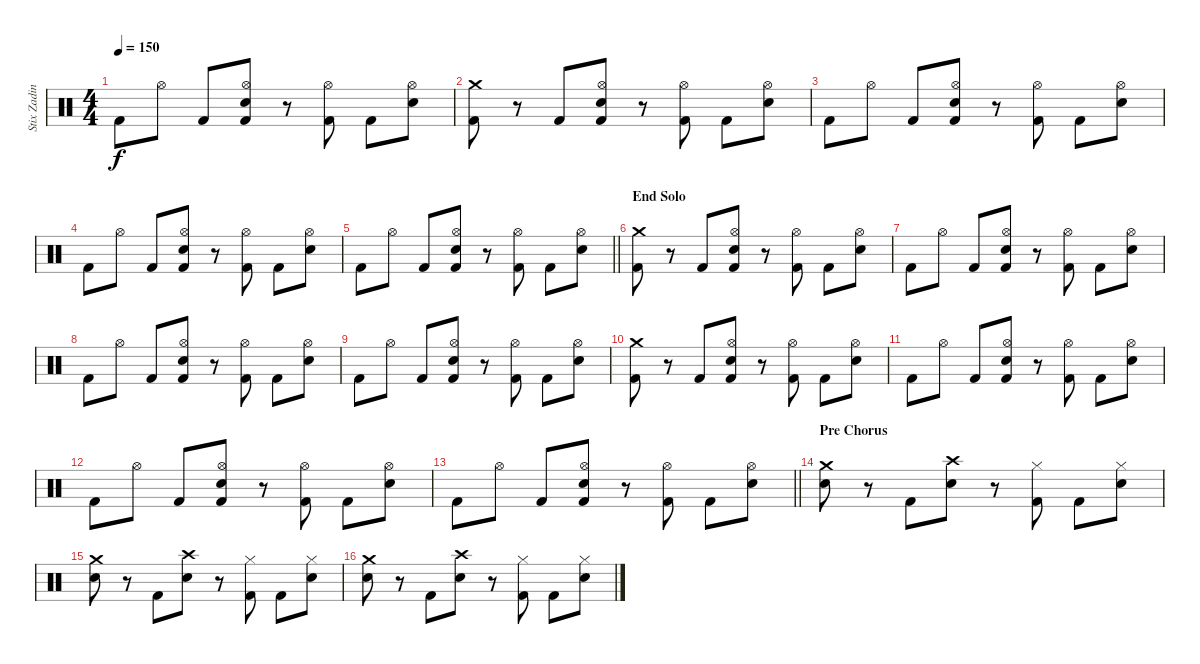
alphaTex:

\track ("Stix Zadina" "Stix Zadin") {instrument percussion}
\staff {score}
\articulation defaults
\ts (4 4)
\tempo 150
\clef neutral
\ks c "Kick (hit) 2".8{dy f} "Hi-Hat (open)".8 "Kick (hit) 2".8
("Hi-Hat (open)" "Snare (hit) 2" "Kick (hit) 2").8 r.8 ("Hi-Hat (open)" "Kick (hit) 2").8 "Kick (hit) 2".8 ("Hi-Hat (open)" "Snare (hit) 2").8 |
("Crash medium (hit)" "Kick (hit) 2").8 r.8 "Kick (hit) 2".8 ("Hi-Hat (open)" "Snare (hit) 2" "Kick (hit) 2").8 r.8 ("Hi-Hat (open)" "Kick (hit) 2").8 "Kick (hit) 2".8 ("Hi-Hat (open)" "Snare (hit) 2").8 |
"Kick (hit) 2".8 "Hi-Hat (open)".8 "Kick (hit) 2".8 ("Hi-Hat (open)" "Snare (hit) 2" "Kick (hit) 2").8 r.8 ("Hi-Hat (open)" "Kick (hit) 2").8 "Kick (hit) 2".8 ("Hi-Hat (open)" "Snare (hit) 2").8 |
"Kick (hit) 2".8 "Hi-Hat (open)".8 "Kick (hit) 2".8 ("Hi-Hat (open)" "Snare (hit) 2" "Kick (hit) 2").8 r.8 ("Hi-Hat (open)" "Kick (hit) 2").8 "Kick (hit) 2".8 ("Hi-Hat (open)" "Snare (hit) 2").8 |
\barLineRight lightlight "Kick (hit) 2".8 "Hi-Hat (open)".8 "Kick (hit) 2".8
("Hi-Hat (open)" "Snare (hit) 2" "Kick (hit) 2").8 r.8 ("Hi-Hat (open)" "Kick (hit) 2").8 "Kick (hit) 2".8 ("Hi-Hat (open)" "Snare (hit) 2").8 |
\section ("" "End Solo")
("Crash medium (hit)" "Kick (hit) 2").8 r.8 "Kick (hit) 2".8 ("Hi-Hat (open)" "Snare (hit) 2" "Kick (hit) 2").8 r.8 ("Hi-Hat (open)" "Kick (hit) 2").8 "Kick (hit) 2".8 ("Hi-Hat (open)" "Snare (hit) 2").8 |
"Kick (hit) 2".8 "Hi-Hat (open)".8 "Kick (hit) 2".8 ("Hi-Hat (open)" "Snare (hit) 2" "Kick (hit) 2").8 r.8 ("Hi-Hat (open)" "Kick (hit) 2").8 "Kick (hit) 2".8 ("Hi-Hat (open)" "Snare (hit) 2").8 |
"Kick (hit) 2".8 "Hi-Hat (open)".8 "Kick (hit) 2".8 ("Hi-Hat (open)" "Snare (hit) 2" "Kick (hit) 2").8 r.8 ("Hi-Hat (open)" "Kick (hit) 2").8 "Kick (hit) 2".8 ("Hi-Hat (open)" "Snare (hit) 2").8 |
"Kick (hit) 2".8 "Hi-Hat (open)".8 "Kick (hit) 2".8 ("Hi-Hat (open)" "Snare (hit) 2" "Kick (hit) 2").8 r.8 ("Hi-Hat (open)" "Kick (hit) 2").8 "Kick (hit) 2".8 ("Hi-Hat (open)" "Snare (hit) 2").8 |
("Crash medium (hit)" "Kick (hit) 2").8 r.8 "Kick (hit) 2".8 ("Hi-Hat (open)" "Snare (hit) 2" "Kick (hit) 2").8 r.8 ("Hi-Hat (open)" "Kick (hit) 2").8 "Kick (hit) 2".8 ("Hi-Hat (open)" "Snare (hit) 2").8 |
"Kick (hit) 2".8 "Hi-Hat (open)".8 "Kick (hit) 2".8 ("Hi-Hat (open)" "Snare (hit) 2" "Kick (hit) 2").8 r.8 ("Hi-Hat (open)" "Kick (hit) 2").8 "Kick (hit) 2".8 ("Hi-Hat (open)" "Snare (hit) 2").8 |
"Kick (hit) 2".8 "Hi-Hat (open)".8 "Kick (hit) 2".8 ("Hi-Hat (open)" "Snare (hit) 2" "Kick (hit) 2").8 r.8 ("Hi-Hat (open)" "Kick (hit) 2").8 "Kick (hit) 2".8 ("Hi-Hat (open)" "Snare (hit) 2").8 |
\barLineRight lightlight "Kick (hit) 2".8 "Hi-Hat (open)".8 "Kick (hit) 2".8
("Hi-Hat (open)" "Snare (hit) 2" "Kick (hit) 2").8 r.8 ("Hi-Hat (open)" "Kick (hit) 2").8 "Kick (hit) 2".8 ("Hi-Hat (open)" "Snare (hit) 2").8 |
\section ("" "Pre Chorus")
("Crash medium (hit)" "Snare (hit) 2").8 r.8 "Kick (hit) 2".8 ("Crash high (hit)" "Snare (hit) 2").8 r.8 ("Hi-Hat (closed)" "Kick (hit) 2").8 "Kick (hit) 2".8 ("Hi-Hat (closed)" "Snare (hit) 2").8 |
("Crash medium (hit)" "Snare (hit) 2").8 r.8 "Kick (hit) 2".8 ("Crash high (hit)" "Snare (hit) 2").8 r.8 ("Hi-Hat (closed)" "Kick (hit) 2").8 "Kick (hit) 2".8 ("Hi-Hat (closed)" "Snare (hit) 2").8 |
("Crash medium (hit)" "Snare (hit) 2").8 r.8 "Kick (hit) 2".8 ("Crash high (hit)" "Snare (hit) 2").8 r.8 ("Hi-Hat (closed)" "Kick (hit) 2").8 "Kick (hit) 2".8 ("Hi-Hat (closed)" "Snare (hit) 2").8
